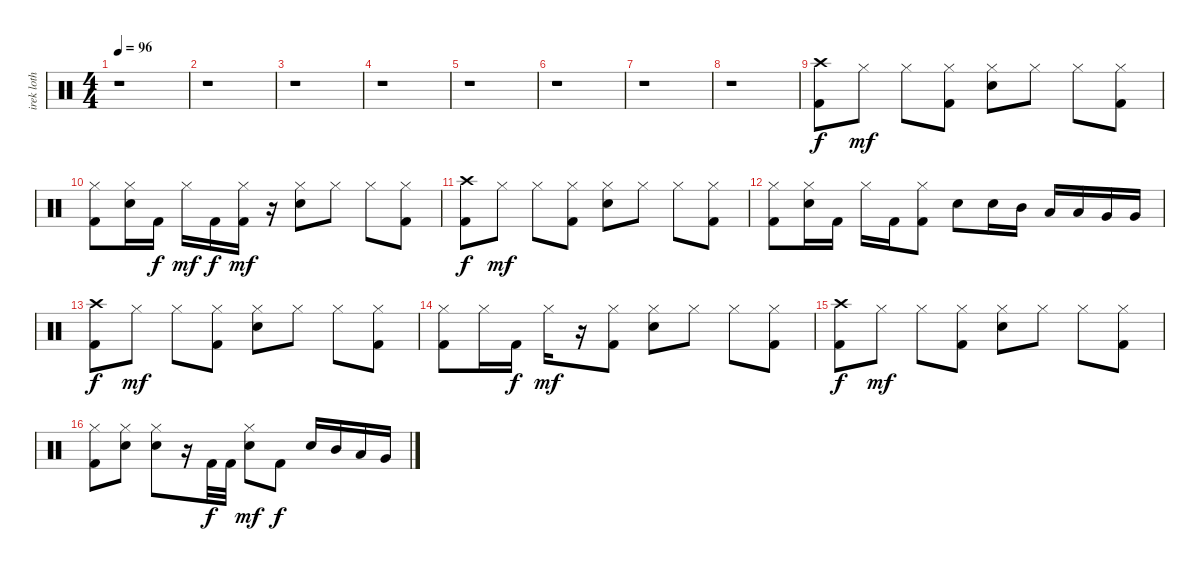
\track ("irek loth" "irek loth") {instrument percussion}
\staff {score}
\articulation defaults
\ts (4 4)
\tempo 96
\clef neutral
\ks c
r.1{dy f} |
r.1 |
r.1 |
r.1 |
r.1 |
r.1 |
r.1 |
r.1 |
("Crash high (hit)" "Kick (hit) 2").8 "Hi-Hat (closed)".8{dy mf} "Hi-Hat (closed)".8 ("Hi-Hat (closed)" "Kick (hit) 2").8 ("Snare (hit) 2" "Hi-Hat (closed)").8 "Hi-Hat (closed)".8 "Hi-Hat (closed)".8 ("Hi-Hat (closed)" "Kick (hit) 2").8 |
("Hi-Hat (closed)" "Kick (hit) 2").8 ("Snare (hit) 2" "Hi-Hat (closed)").16 "Kick (hit) 2".16{dy f} "Hi-Hat (closed)".16{dy mf} "Kick (hit) 2".16{dy f} ("Hi-Hat (closed)" "Kick (hit) 2").16{dy mf} r.16 ("Snare (hit) 2" "Hi-Hat (closed)").8 "Hi-Hat (closed)".8 "Hi-Hat (closed)".8 ("Hi-Hat (closed)" "Kick (hit) 2").8 |
("Crash high (hit)" "Kick (hit) 2").8{dy f} "Hi-Hat (closed)".8{dy mf} "Hi-Hat (closed)".8 ("Hi-Hat (closed)" "Kick (hit) 2").8 ("Snare (hit) 2" "Hi-Hat (closed)").8 "Hi-Hat (closed)".8 "Hi-Hat (closed)".8 ("Hi-Hat (closed)" "Kick (hit) 2").8 |
("Hi-Hat (closed)" "Kick (hit) 2").8 ("Snare (hit) 2" "Hi-Hat (closed)").16 "Kick (hit) 2".16 "Hi-Hat (closed)".16 "Kick (hit) 2".16 ("Hi-Hat (closed)" "Kick (hit) 2").8 "Snare (hit) 2".8 "Snare (hit) 2".16 "Mid Tom (hit)".16 "Low Tom (hit)".16 "Low Tom (hit)".16 "Very Low Tom (hit)".16 "Very Low Tom (hit)".16 |
("Crash high (hit)" "Kick (hit) 2").8{dy f} "Hi-Hat (closed)".8{dy mf} "Hi-Hat (closed)".8 ("Hi-Hat (closed)" "Kick (hit) 2").8 ("Snare (hit) 2" "Hi-Hat (closed)").8 "Hi-Hat (closed)".8 "Hi-Hat (closed)".8 ("Hi-Hat (closed)" "Kick (hit) 2").8 |
("Hi-Hat (closed)" "Kick (hit) 2").8 "Hi-Hat (closed)".16 "Kick (hit) 2".16{dy f} "Hi-Hat (closed)".16{dy mf} r.16 ("Hi-Hat (closed)" "Kick (hit) 2").8 ("Snare (hit) 2" "Hi-Hat (closed)").8 "Hi-Hat (closed)".8 "Hi-Hat (closed)".8 ("Hi-Hat (closed)" "Kick (hit) 2").8 |
("Crash high (hit)" "Kick (hit) 2").8{dy f} "Hi-Hat (closed)".8{dy mf} "Hi-Hat (closed)".8 ("Hi-Hat (closed)" "Kick (hit) 2").8 ("Snare (hit) 2" "Hi-Hat (closed)").8 "Hi-Hat (closed)".8 "Hi-Hat (closed)".8 ("Hi-Hat (closed)" "Kick (hit) 2").8 |
("Hi-Hat (closed)" "Kick (hit) 2").8 ("Snare (hit) 2" "Hi-Hat (closed)").8 ("Snare (hit) 2" "Hi-Hat (closed)").8 r.16 "Kick (hit) 2".32{dy f} "Kick (hit) 2".32 ("Snare (hit) 2" "Hi-Hat (closed)").8{dy mf} "Kick (hit) 2".8{dy f} "Snare (hit) 2".16 "Mid Tom (hit)".16 "Low Tom (hit)".16 "Very Low Tom (hit)".16
